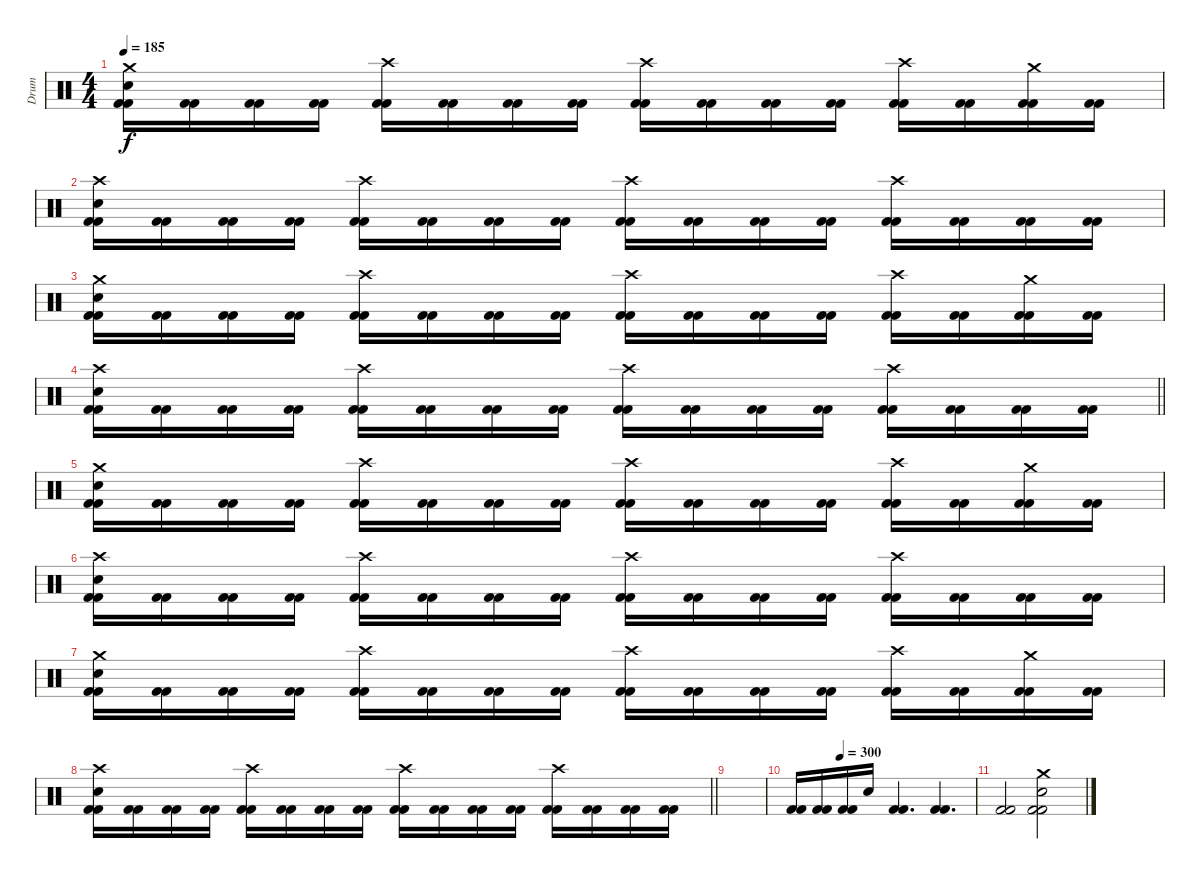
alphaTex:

\track ("Drum" "Drum") {instrument percussion}
\staff {score}
\articulation defaults
\ts (4 4)
\tempo 185
\clef neutral
\ks c
("Crash medium (hit)" "Electric Snare (hit)" "Kick (hit) 2" "Kick (hit) 2").16{dy f} ("Kick (hit) 2" "Kick (hit) 2").16 ("Kick (hit) 2" "Kick (hit) 2").16 ("Kick (hit) 2" "Kick (hit) 2").16 ("Crash high (hit)" "Kick (hit) 2" "Kick (hit) 2").16 ("Kick (hit) 2" "Kick (hit) 2").16 ("Kick (hit) 2" "Kick (hit) 2").16 ("Kick (hit) 2" "Kick (hit) 2").16 ("Crash high (hit)" "Kick (hit) 2" "Kick (hit) 2").16 ("Kick (hit) 2" "Kick (hit) 2").16 ("Kick (hit) 2" "Kick (hit) 2").16 ("Kick (hit) 2" "Kick (hit) 2").16 ("Crash high (hit)" "Kick (hit) 2" "Kick (hit) 2").16 ("Kick (hit) 2" "Kick (hit) 2").16 ("Crash medium (hit)" "Kick (hit) 2" "Kick (hit) 2").16 ("Kick (hit) 2" "Kick (hit) 2").16 |
("Crash high (hit)" "Electric Snare (hit)" "Kick (hit) 2" "Kick (hit) 2").16 ("Kick (hit) 2" "Kick (hit) 2").16 ("Kick (hit) 2" "Kick (hit) 2").16 ("Kick (hit) 2" "Kick (hit) 2").16 ("Crash high (hit)" "Kick (hit) 2" "Kick (hit) 2").16 ("Kick (hit) 2" "Kick (hit) 2").16 ("Kick (hit) 2" "Kick (hit) 2").16 ("Kick (hit) 2" "Kick (hit) 2").16 ("Crash high (hit)" "Kick (hit) 2" "Kick (hit) 2").16 ("Kick (hit) 2" "Kick (hit) 2").16 ("Kick (hit) 2" "Kick (hit) 2").16 ("Kick (hit) 2" "Kick (hit) 2").16 ("Crash high (hit)" "Kick (hit) 2" "Kick (hit) 2").16 ("Kick (hit) 2" "Kick (hit) 2").16 ("Kick (hit) 2" "Kick (hit) 2").16 ("Kick (hit) 2" "Kick (hit) 2").16 |
("Crash medium (hit)" "Electric Snare (hit)" "Kick (hit) 2" "Kick (hit) 2").16 ("Kick (hit) 2" "Kick (hit) 2").16 ("Kick (hit) 2" "Kick (hit) 2").16 ("Kick (hit) 2" "Kick (hit) 2").16 ("Crash high (hit)" "Kick (hit) 2" "Kick (hit) 2").16 ("Kick (hit) 2" "Kick (hit) 2").16 ("Kick (hit) 2" "Kick (hit) 2").16 ("Kick (hit) 2" "Kick (hit) 2").16 ("Crash high (hit)" "Kick (hit) 2" "Kick (hit) 2").16 ("Kick (hit) 2" "Kick (hit) 2").16 ("Kick (hit) 2" "Kick (hit) 2").16 ("Kick (hit) 2" "Kick (hit) 2").16 ("Crash high (hit)" "Kick (hit) 2" "Kick (hit) 2").16 ("Kick (hit) 2" "Kick (hit) 2").16 ("Crash medium (hit)" "Kick (hit) 2" "Kick (hit) 2").16 ("Kick (hit) 2" "Kick (hit) 2").16 |
\barLineRight lightlight
("Crash high (hit)" "Electric Snare (hit)" "Kick (hit) 2" "Kick (hit) 2").16 ("Kick (hit) 2" "Kick (hit) 2").16 ("Kick (hit) 2" "Kick (hit) 2").16 ("Kick (hit) 2" "Kick (hit) 2").16 ("Crash high (hit)" "Kick (hit) 2" "Kick (hit) 2").16 ("Kick (hit) 2" "Kick (hit) 2").16 ("Kick (hit) 2" "Kick (hit) 2").16 ("Kick (hit) 2" "Kick (hit) 2").16 ("Crash high (hit)" "Kick (hit) 2" "Kick (hit) 2").16 ("Kick (hit) 2" "Kick (hit) 2").16 ("Kick (hit) 2" "Kick (hit) 2").16 ("Kick (hit) 2" "Kick (hit) 2").16 ("Crash high (hit)" "Kick (hit) 2" "Kick (hit) 2").16 ("Kick (hit) 2" "Kick (hit) 2").16 ("Kick (hit) 2" "Kick (hit) 2").16 ("Kick (hit) 2" "Kick (hit) 2").16 |
("Crash medium (hit)" "Electric Snare (hit)" "Kick (hit) 2" "Kick (hit) 2").16 ("Kick (hit) 2" "Kick (hit) 2").16 ("Kick (hit) 2" "Kick (hit) 2").16 ("Kick (hit) 2" "Kick (hit) 2").16 ("Crash high (hit)" "Kick (hit) 2" "Kick (hit) 2").16 ("Kick (hit) 2" "Kick (hit) 2").16 ("Kick (hit) 2" "Kick (hit) 2").16 ("Kick (hit) 2" "Kick (hit) 2").16 ("Crash high (hit)" "Kick (hit) 2" "Kick (hit) 2").16 ("Kick (hit) 2" "Kick (hit) 2").16 ("Kick (hit) 2" "Kick (hit) 2").16 ("Kick (hit) 2" "Kick (hit) 2").16 ("Crash high (hit)" "Kick (hit) 2" "Kick (hit) 2").16 ("Kick (hit) 2" "Kick (hit) 2").16 ("Crash medium (hit)" "Kick (hit) 2" "Kick (hit) 2").16 ("Kick (hit) 2" "Kick (hit) 2").16 |
("Crash high (hit)" "Electric Snare (hit)" "Kick (hit) 2" "Kick (hit) 2").16 ("Kick (hit) 2" "Kick (hit) 2").16 ("Kick (hit) 2" "Kick (hit) 2").16 ("Kick (hit) 2" "Kick (hit) 2").16 ("Crash high (hit)" "Kick (hit) 2" "Kick (hit) 2").16 ("Kick (hit) 2" "Kick (hit) 2").16 ("Kick (hit) 2" "Kick (hit) 2").16 ("Kick (hit) 2" "Kick (hit) 2").16 ("Crash high (hit)" "Kick (hit) 2" "Kick (hit) 2").16 ("Kick (hit) 2" "Kick (hit) 2").16 ("Kick (hit) 2" "Kick (hit) 2").16 ("Kick (hit) 2" "Kick (hit) 2").16 ("Crash high (hit)" "Kick (hit) 2" "Kick (hit) 2").16 ("Kick (hit) 2" "Kick (hit) 2").16 ("Kick (hit) 2" "Kick (hit) 2").16 ("Kick (hit) 2" "Kick (hit) 2").16 |
("Crash medium (hit)" "Electric Snare (hit)" "Kick (hit) 2" "Kick (hit) 2").16 ("Kick (hit) 2" "Kick (hit) 2").16 ("Kick (hit) 2" "Kick (hit) 2").16 ("Kick (hit) 2" "Kick (hit) 2").16 ("Crash high (hit)" "Kick (hit) 2" "Kick (hit) 2").16 ("Kick (hit) 2" "Kick (hit) 2").16 ("Kick (hit) 2" "Kick (hit) 2").16 ("Kick (hit) 2" "Kick (hit) 2").16 ("Crash high (hit)" "Kick (hit) 2" "Kick (hit) 2").16 ("Kick (hit) 2" "Kick (hit) 2").16 ("Kick (hit) 2" "Kick (hit) 2").16 ("Kick (hit) 2" "Kick (hit) 2").16 ("Crash high (hit)" "Kick (hit) 2" "Kick (hit) 2").16 ("Kick (hit) 2" "Kick (hit) 2").16 ("Crash medium (hit)" "Kick (hit) 2" "Kick (hit) 2").16 ("Kick (hit) 2" "Kick (hit) 2").16 |
\barLineRight lightlight
("Crash high (hit)" "Electric Snare (hit)" "Kick (hit) 2" "Kick (hit) 2").16 ("Kick (hit) 2" "Kick (hit) 2").16 ("Kick (hit) 2" "Kick (hit) 2").16 ("Kick (hit) 2" "Kick (hit) 2").16 ("Crash high (hit)" "Kick (hit) 2" "Kick (hit) 2").16 ("Kick (hit) 2" "Kick (hit) 2").16 ("Kick (hit) 2" "Kick (hit) 2").16 ("Kick (hit) 2" "Kick (hit) 2").16 ("Crash high (hit)" "Kick (hit) 2" "Kick (hit) 2").16 ("Kick (hit) 2" "Kick (hit) 2").16 ("Kick (hit) 2" "Kick (hit) 2").16 ("Kick (hit) 2" "Kick (hit) 2").16 ("Crash high (hit)" "Kick (hit) 2" "Kick (hit) 2").16 ("Kick (hit) 2" "Kick (hit) 2").16 ("Kick (hit) 2" "Kick (hit) 2").16 ("Kick (hit) 2" "Kick (hit) 2").16 |
|
\tempo (300 0.25)
("Kick (hit) 2" "Kick (hit) 2").16 ("Kick (hit) 2" "Kick (hit) 2").16 ("Kick (hit) 2" "Kick (hit) 2").16 "Electric Snare (hit)".16 ("Kick (hit) 2" "Kick (hit) 2").4{d} ("Kick (hit) 2" "Kick (hit) 2").4{d} |
("Kick (hit) 2" "Kick (hit) 2").2 ("Crash medium (hit)" "Electric Snare (hit)" "Kick (hit) 2" "Kick (hit) 2").2
